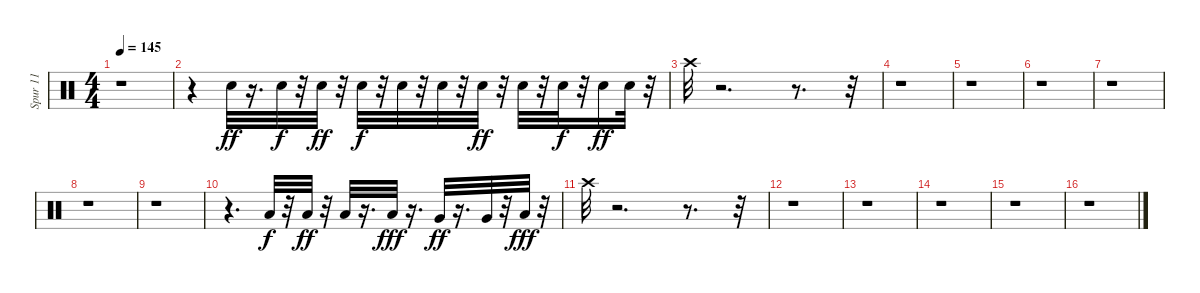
\track ("Spur 11" "Spur 11") {instrument percussion}
\staff {score}
\articulation defaults
\ts (4 4)
\tempo 145
\clef neutral
\ks c
r.1{dy fff} |
r.4 "Electric Snare (hit)".32{dy ff} r.16{d} "Electric Snare (hit)".32{dy f} r.32 "Electric Snare (hit)".32{dy ff} r.32 "Electric Snare (hit)".32{dy f} r.32 "Electric Snare (hit)".32 r.32 "Electric Snare (hit)".32 r.32 "Electric Snare (hit)".32{dy ff} r.32 "Electric Snare (hit)".32 r.32 "Electric Snare (hit)".32{dy f} r.32 "Electric Snare (hit)".16{dy ff} "Electric Snare (hit)".32 r.32 |
"Crash high (hit)".32 r.2{d} r.8{d} r.32 |
r.1 |
r.1 |
r.1 |
r.1 |
r.1 |
r.1 |
r.4{d} "Low Tom (hit)".32{dy f} r.32 "Low Tom (hit)".32{dy ff} r.32 "Low Tom (hit)".32 r.16{d} "Low Tom (hit)".32{dy fff} r.16{d} "Very Low Tom (hit)".32{dy ff} r.16{d} "Very Low Tom (hit)".32 r.32 "Low Floor Tom (hit)".32{dy fff} r.32 |
"Crash high (hit)".32 r.2{d} r.8{d} r.32 |
r.1 |
r.1 |
r.1 |
r.1 |
r.1
